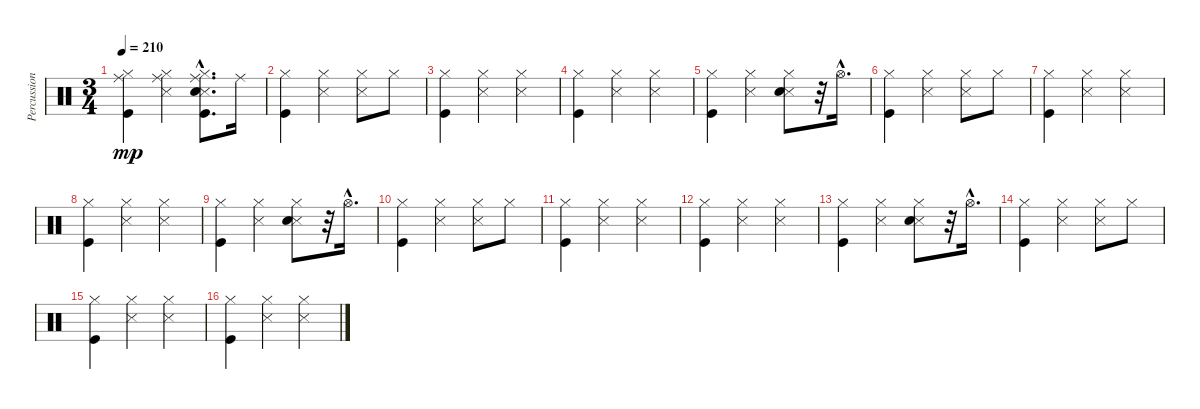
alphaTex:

\track ("Percussion" "Percussion") {instrument percussion}
\staff {score}
\articulation defaults
\ts (3 4)
\tempo 210
\clef neutral
\ks c
("Kick (hit)" "Hi-Hat (closed)" "Ride (middle)").4{dy mp} ("Snare (side stick) 3" "Hi-Hat (closed)" "Ride (middle)").4 ("Kick (hit)"{hac} "Snare (side stick) 3"{hac} "Snare (hit) 2"{hac} "Hi-Hat (closed)"{hac} "Ride (middle)"{hac}).8{d} "Ride (middle)".16 |
("Kick (hit)" "Hi-Hat (closed)").4 ("Snare (side stick) 3" "Hi-Hat (closed)").4 ("Snare (side stick) 3" "Hi-Hat (closed)").8 "Hi-Hat (closed)".8 |
("Kick (hit)" "Hi-Hat (closed)").4 ("Snare (side stick) 3" "Hi-Hat (closed)").4 ("Snare (side stick) 3" "Hi-Hat (closed)").4 |
("Kick (hit)" "Hi-Hat (closed)").4 ("Snare (side stick) 3" "Hi-Hat (closed)").4 ("Snare (side stick) 3" "Hi-Hat (closed)").4 |
("Kick (hit)" "Hi-Hat (closed)").4 ("Snare (side stick) 3" "Hi-Hat (closed)").4 ("Snare (side stick) 3" "Snare (hit) 2" "Hi-Hat (closed)").8 r.32 "Hi-Hat (open)"{hac}.16{d} |
("Kick (hit)" "Hi-Hat (closed)").4 ("Snare (side stick) 3" "Hi-Hat (closed)").4 ("Snare (side stick) 3" "Hi-Hat (closed)").8 "Hi-Hat (closed)".8 |
("Kick (hit)" "Hi-Hat (closed)").4 ("Snare (side stick) 3" "Hi-Hat (closed)").4 ("Snare (side stick) 3" "Hi-Hat (closed)").4 |
("Kick (hit)" "Hi-Hat (closed)").4 ("Snare (side stick) 3" "Hi-Hat (closed)").4 ("Snare (side stick) 3" "Hi-Hat (closed)").4 |
("Kick (hit)" "Hi-Hat (closed)").4 ("Snare (side stick) 3" "Hi-Hat (closed)").4 ("Snare (side stick) 3" "Snare (hit) 2" "Hi-Hat (closed)").8 r.32 "Hi-Hat (open)"{hac}.16{d} |
("Kick (hit)" "Hi-Hat (closed)").4 ("Snare (side stick) 3" "Hi-Hat (closed)").4 ("Snare (side stick) 3" "Hi-Hat (closed)").8 "Hi-Hat (closed)".8 |
("Kick (hit)" "Hi-Hat (closed)").4 ("Snare (side stick) 3" "Hi-Hat (closed)").4 ("Snare (side stick) 3" "Hi-Hat (closed)").4 |
("Kick (hit)" "Hi-Hat (closed)").4 ("Snare (side stick) 3" "Hi-Hat (closed)").4 ("Snare (side stick) 3" "Hi-Hat (closed)").4 |
("Kick (hit)" "Hi-Hat (closed)").4 ("Snare (side stick) 3" "Hi-Hat (closed)").4 ("Snare (side stick) 3" "Snare (hit) 2" "Hi-Hat (closed)").8 r.32 "Hi-Hat (open)"{hac}.16{d} |
("Kick (hit)" "Hi-Hat (closed)").4 ("Snare (side stick) 3" "Hi-Hat (closed)").4 ("Snare (side stick) 3" "Hi-Hat (closed)").8 "Hi-Hat (closed)".8 |
("Kick (hit)" "Hi-Hat (closed)").4 ("Snare (side stick) 3" "Hi-Hat (closed)").4 ("Snare (side stick) 3" "Hi-Hat (closed)").4 |
("Kick (hit)" "Hi-Hat (closed)").4 ("Snare (side stick) 3" "Hi-Hat (closed)").4 ("Snare (side stick) 3" "Hi-Hat (closed)").4
